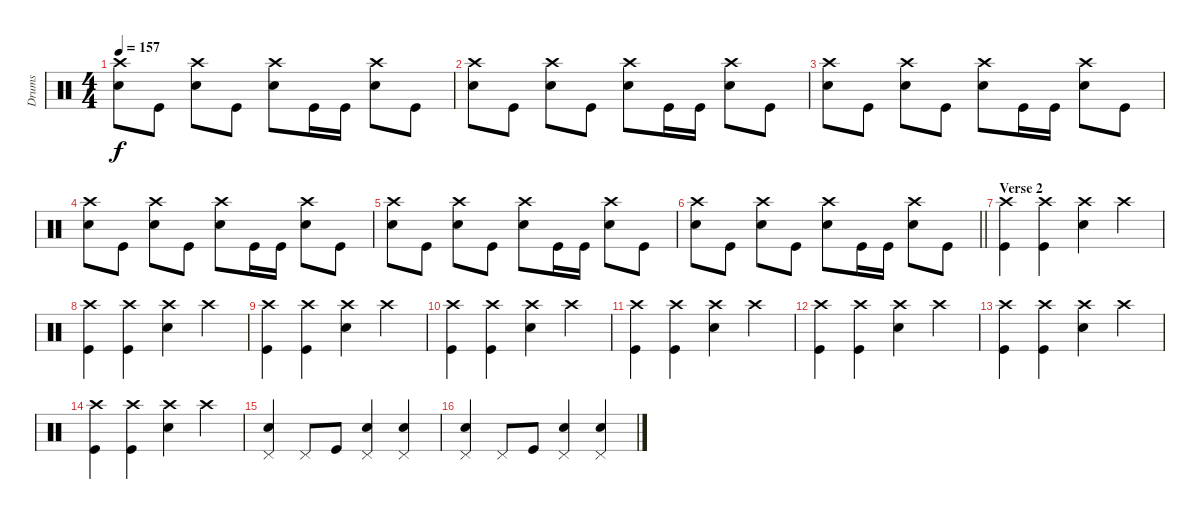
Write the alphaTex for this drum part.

\track ("Drums" "Drums") {instrument percussion}
\staff {score}
\articulation defaults
\ts (4 4)
\tempo 157
\clef neutral
\ks c
("Crash high (hit)" "Snare (hit) 2").8{dy f} "Kick (hit)".8 ("Crash high (hit)" "Snare (hit) 2").8 "Kick (hit)".8 ("Crash high (hit)" "Snare (hit) 2").8 "Kick (hit)".16 "Kick (hit)".16 ("Crash high (hit)" "Snare (hit) 2").8 "Kick (hit)".8 |
("Crash high (hit)" "Snare (hit) 2").8 "Kick (hit)".8 ("Crash high (hit)" "Snare (hit) 2").8 "Kick (hit)".8 ("Crash high (hit)" "Snare (hit) 2").8 "Kick (hit)".16 "Kick (hit)".16 ("Crash high (hit)" "Snare (hit) 2").8 "Kick (hit)".8 |
("Crash high (hit)" "Snare (hit) 2").8 "Kick (hit)".8 ("Crash high (hit)" "Snare (hit) 2").8 "Kick (hit)".8 ("Crash high (hit)" "Snare (hit) 2").8 "Kick (hit)".16 "Kick (hit)".16 ("Crash high (hit)" "Snare (hit) 2").8 "Kick (hit)".8 |
("Crash high (hit)" "Snare (hit) 2").8 "Kick (hit)".8 ("Crash high (hit)" "Snare (hit) 2").8 "Kick (hit)".8 ("Crash high (hit)" "Snare (hit) 2").8 "Kick (hit)".16 "Kick (hit)".16 ("Crash high (hit)" "Snare (hit) 2").8 "Kick (hit)".8 |
("Crash high (hit)" "Snare (hit) 2").8 "Kick (hit)".8 ("Crash high (hit)" "Snare (hit) 2").8 "Kick (hit)".8 ("Crash high (hit)" "Snare (hit) 2").8 "Kick (hit)".16 "Kick (hit)".16 ("Crash high (hit)" "Snare (hit) 2").8 "Kick (hit)".8 |
\barLineRight lightlight
("Crash high (hit)" "Snare (hit) 2").8 "Kick (hit)".8 ("Crash high (hit)" "Snare (hit) 2").8 "Kick (hit)".8 ("Crash high (hit)" "Snare (hit) 2").8 "Kick (hit)".16 "Kick (hit)".16 ("Crash high (hit)" "Snare (hit) 2").8 "Kick (hit)".8 |
\section ("" "Verse 2")
("Crash high (hit)" "Kick (hit)").4 ("Crash high (hit)" "Kick (hit)").4 ("Crash high (hit)" "Snare (hit) 2").4 "Crash high (hit)".4 |
("Crash high (hit)" "Kick (hit)").4 ("Crash high (hit)" "Kick (hit)").4 ("Crash high (hit)" "Snare (hit) 2").4 "Crash high (hit)".4 |
("Crash high (hit)" "Kick (hit)").4 ("Crash high (hit)" "Kick (hit)").4 ("Crash high (hit)" "Snare (hit) 2").4 "Crash high (hit)".4 |
("Crash high (hit)" "Kick (hit)").4 ("Crash high (hit)" "Kick (hit)").4 ("Crash high (hit)" "Snare (hit) 2").4 "Crash high (hit)".4 |
("Crash high (hit)" "Kick (hit)").4 ("Crash high (hit)" "Kick (hit)").4 ("Crash high (hit)" "Snare (hit) 2").4 "Crash high (hit)".4 |
("Crash high (hit)" "Kick (hit)").4 ("Crash high (hit)" "Kick (hit)").4 ("Crash high (hit)" "Snare (hit) 2").4 "Crash high (hit)".4 |
("Crash high (hit)" "Kick (hit)").4 ("Crash high (hit)" "Kick (hit)").4 ("Crash high (hit)" "Snare (hit) 2").4 "Crash high (hit)".4 |
("Crash high (hit)" "Kick (hit)").4 ("Crash high (hit)" "Kick (hit)").4 ("Crash high (hit)" "Snare (hit) 2").4 "Crash high (hit)".4 |
("Pedal Hi-Hat (hit)" "Snare (hit) 2").4 "Pedal Hi-Hat (hit)".8 "Kick (hit)".8 ("Pedal Hi-Hat (hit)" "Snare (hit) 2").4 ("Pedal Hi-Hat (hit)" "Snare (hit) 2").4 |
("Pedal Hi-Hat (hit)" "Snare (hit) 2").4 "Pedal Hi-Hat (hit)".8 "Kick (hit)".8 ("Pedal Hi-Hat (hit)" "Snare (hit) 2").4 ("Pedal Hi-Hat (hit)" "Snare (hit) 2").4
